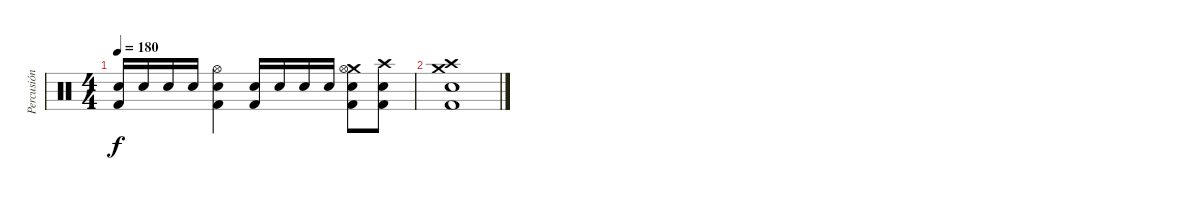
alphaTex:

\track ("Percusión" "Percusión") {instrument percussion}
\staff {score}
\articulation defaults
\ts (4 4)
\tempo 180
\clef neutral
\ks c
("Kick (hit) 2" "Electric Snare (hit)").16{dy f} "Electric Snare (hit)".16 "Electric Snare (hit)".16 "Electric Snare (hit)".16 ("Kick (hit) 2" "Electric Snare (hit)" "Hi-Hat (open)").4 ("Kick (hit) 2" "Electric Snare (hit)").16 "Electric Snare (hit)".16 "Electric Snare (hit)".16 "Electric Snare (hit)".16 ("Crash medium (hit)" "Kick (hit) 2" "Electric Snare (hit)" "Hi-Hat (open)").8 ("Crash high (hit)" "Kick (hit) 2" "Electric Snare (hit)").8 |
("Crash medium (hit)" "Crash high (hit)" "Kick (hit) 2" "Electric Snare (hit)").1
